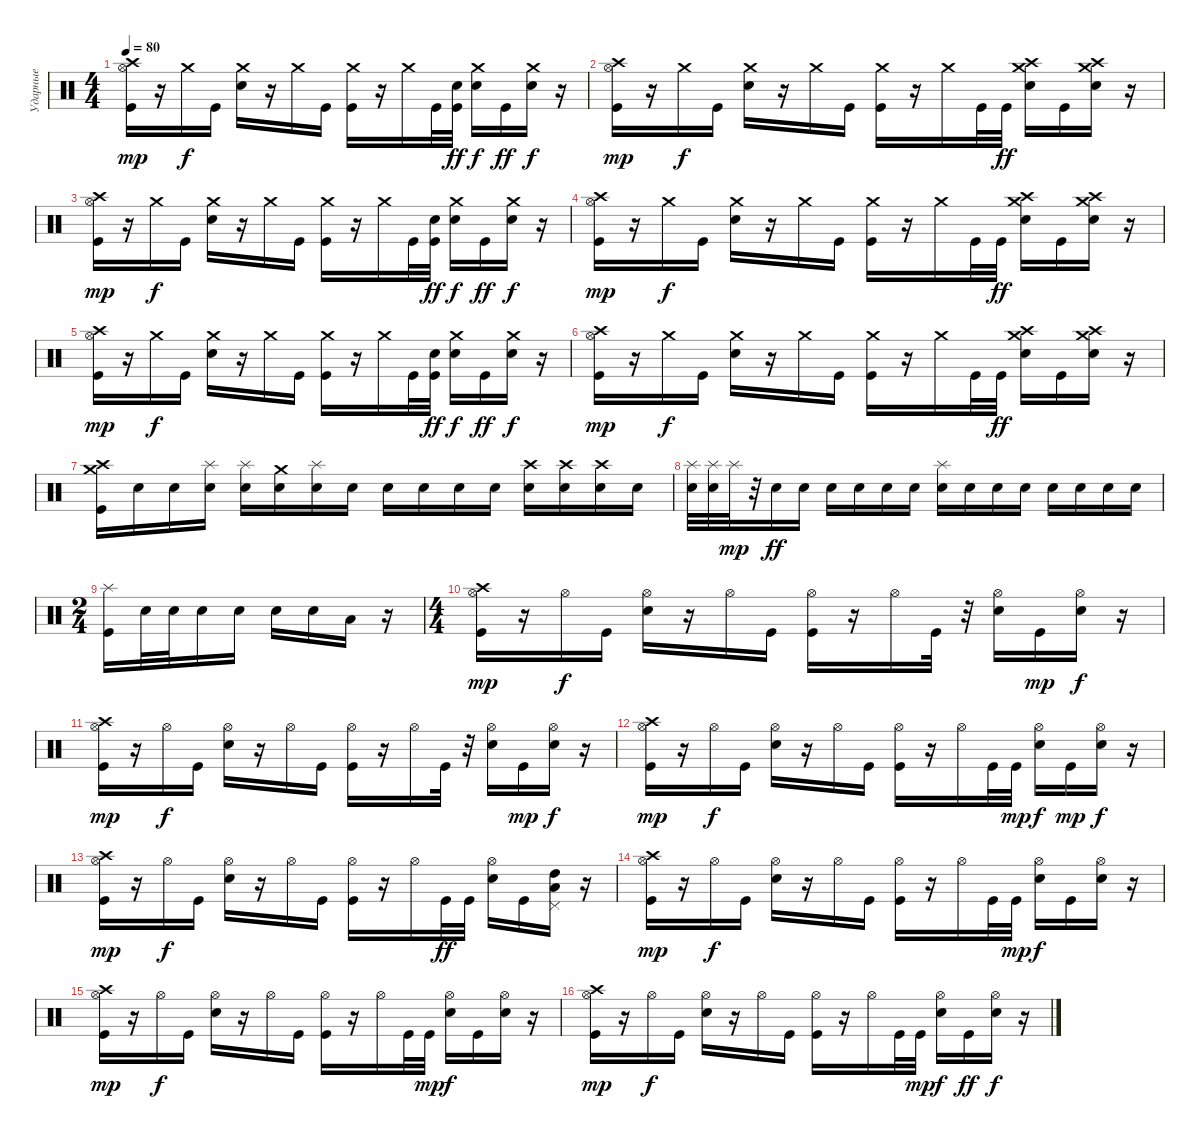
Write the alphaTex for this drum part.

\track ("Ударные" "Ударные") {instrument percussion}
\staff {score}
\articulation defaults
\ts (4 4)
\tempo 80
\clef neutral
\ks c
("Crash high (hit)" "Hi-Hat (open)" "Kick (hit)").16{dy mp} r.16 "Crash medium (hit)".16{dy f} "Kick (hit)".16 ("Crash medium (hit)" "Electric Snare (hit)").16 r.16 "Crash medium (hit)".16 "Kick (hit)".16 ("Crash medium (hit)" "Kick (hit)").16 r.16 "Crash medium (hit)".16 "Kick (hit)".32 ("Snare (hit)" "Kick (hit)").32{dy ff} ("Crash medium (hit)" "Electric Snare (hit)").16{dy f} "Kick (hit)".16{dy ff} ("Crash medium (hit)" "Electric Snare (hit)").16{dy f} r.16 |
("Crash high (hit)" "Hi-Hat (open)" "Kick (hit)").16{dy mp} r.16 "Crash medium (hit)".16{dy f} "Kick (hit)".16 ("Crash medium (hit)" "Electric Snare (hit)").16 r.16 "Crash medium (hit)".16 "Kick (hit)".16 ("Crash medium (hit)" "Kick (hit)").16 r.16 "Crash medium (hit)".16 "Kick (hit)".32 "Kick (hit)".32{dy ff} ("Crash high (hit)" "Crash medium (hit)" "Electric Snare (hit)").16 "Kick (hit)".16 ("Crash medium (hit)" "Crash high (hit)" "Electric Snare (hit)").16 r.16 |
("Crash high (hit)" "Hi-Hat (open)" "Kick (hit)").16{dy mp} r.16 "Crash medium (hit)".16{dy f} "Kick (hit)".16 ("Crash medium (hit)" "Electric Snare (hit)").16 r.16 "Crash medium (hit)".16 "Kick (hit)".16 ("Crash medium (hit)" "Kick (hit)").16 r.16 "Crash medium (hit)".16 "Kick (hit)".32 ("Snare (hit)" "Kick (hit)").32{dy ff} ("Crash medium (hit)" "Electric Snare (hit)").16{dy f} "Kick (hit)".16{dy ff} ("Crash medium (hit)" "Electric Snare (hit)").16{dy f} r.16 |
("Crash high (hit)" "Hi-Hat (open)" "Kick (hit)").16{dy mp} r.16 "Crash medium (hit)".16{dy f} "Kick (hit)".16 ("Crash medium (hit)" "Electric Snare (hit)").16 r.16 "Crash medium (hit)".16 "Kick (hit)".16 ("Crash medium (hit)" "Kick (hit)").16 r.16 "Crash medium (hit)".16 "Kick (hit)".32 "Kick (hit)".32{dy ff} ("Crash high (hit)" "Crash medium (hit)" "Electric Snare (hit)").16 "Kick (hit)".16 ("Crash medium (hit)" "Crash high (hit)" "Electric Snare (hit)").16 r.16 |
("Crash high (hit)" "Hi-Hat (open)" "Kick (hit)").16{dy mp} r.16 "Crash medium (hit)".16{dy f} "Kick (hit)".16 ("Crash medium (hit)" "Electric Snare (hit)").16 r.16 "Crash medium (hit)".16 "Kick (hit)".16 ("Crash medium (hit)" "Kick (hit)").16 r.16 "Crash medium (hit)".16 "Kick (hit)".32 ("Snare (hit)" "Kick (hit)").32{dy ff} ("Crash medium (hit)" "Electric Snare (hit)").16{dy f} "Kick (hit)".16{dy ff} ("Crash medium (hit)" "Electric Snare (hit)").16{dy f} r.16 |
("Crash high (hit)" "Hi-Hat (open)" "Kick (hit)").16{dy mp} r.16 "Crash medium (hit)".16{dy f} "Kick (hit)".16 ("Crash medium (hit)" "Electric Snare (hit)").16 r.16 "Crash medium (hit)".16 "Kick (hit)".16 ("Crash medium (hit)" "Kick (hit)").16 r.16 "Crash medium (hit)".16 "Kick (hit)".32 "Kick (hit)".32{dy ff} ("Crash high (hit)" "Crash medium (hit)" "Electric Snare (hit)").16 "Kick (hit)".16 ("Crash medium (hit)" "Crash high (hit)" "Electric Snare (hit)").16 r.16 |
("Crash medium (hit)" "Crash high (hit)" "Kick (hit)").16 "Snare (hit)".16 "Snare (hit)".16 ("Splash (hit)" "Snare (hit)").16 ("Splash (hit)" "Snare (hit)").16 ("Crash medium (hit)" "Snare (hit)").16 ("Splash (hit)" "Snare (hit)").16 "Snare (hit)".16 "Snare (hit)".16 "Snare (hit)".16 "Snare (hit)".16 "Snare (hit)".16 ("Crash high (hit)" "Snare (hit)").16 ("Crash high (hit)" "Snare (hit)").16 ("Crash high (hit)" "Snare (hit)").16 "Snare (hit)".16 |
("Splash (hit)" "Snare (hit)").32 ("Splash (hit)" "Snare (hit)").32 "Splash (hit)".32{dy mp} r.32 "Snare (hit)".16{dy ff} "Snare (hit)".16 "Snare (hit)".16 "Snare (hit)".16 "Snare (hit)".16 "Snare (hit)".16 ("Splash (hit)" "Snare (hit)").16 "Snare (hit)".16 "Snare (hit)".16 "Snare (hit)".16 "Snare (hit)".16 "Snare (hit)".16 "Snare (hit)".16 "Snare (hit)".16 |
\ts (2 4)
("Splash (hit)" "Kick (hit)").16 "Electric Snare (hit)".32 "Electric Snare (hit)".32 "Electric Snare (hit)".16 "Electric Snare (hit)".16 "Electric Snare (hit)".16 "Electric Snare (hit)".16 "Low Floor Tom (hit)".16 r.16 |
\ts (4 4)
("Crash high (hit)" "Hi-Hat (open)" "Kick (hit)").16{dy mp} r.16 "Hi-Hat (open)".16{dy f} "Kick (hit)".16 ("Hi-Hat (open)" "Electric Snare (hit)").16 r.16 "Hi-Hat (open)".16 "Kick (hit)".16 ("Hi-Hat (open)" "Kick (hit)").16 r.16 "Hi-Hat (open)".16 "Kick (hit)".32 r.32 ("Hi-Hat (open)" "Electric Snare (hit)").16 "Kick (hit)".16{dy mp} ("Hi-Hat (open)" "Electric Snare (hit)").16{dy f} r.16 |
("Crash high (hit)" "Hi-Hat (open)" "Kick (hit)").16{dy mp} r.16 "Hi-Hat (open)".16{dy f} "Kick (hit)".16 ("Hi-Hat (open)" "Electric Snare (hit)").16 r.16 "Hi-Hat (open)".16 "Kick (hit)".16 ("Hi-Hat (open)" "Kick (hit)").16 r.16 "Hi-Hat (open)".16 "Kick (hit)".32 r.32 ("Hi-Hat (open)" "Electric Snare (hit)").16 "Kick (hit)".16{dy mp} ("Hi-Hat (open)" "Electric Snare (hit)").16{dy f} r.16 |
("Crash high (hit)" "Hi-Hat (open)" "Kick (hit)").16{dy mp} r.16 "Hi-Hat (open)".16{dy f} "Kick (hit)".16 ("Hi-Hat (open)" "Electric Snare (hit)").16 r.16 "Hi-Hat (open)".16 "Kick (hit)".16 ("Hi-Hat (open)" "Kick (hit)").16 r.16 "Hi-Hat (open)".16 "Kick (hit)".32 "Kick (hit)".32{dy mp} ("Hi-Hat (open)" "Electric Snare (hit)").16{dy f} "Kick (hit)".16{dy mp} ("Hi-Hat (open)" "Electric Snare (hit)").16{dy f} r.16 |
("Crash high (hit)" "Hi-Hat (open)" "Kick (hit)").16{dy mp} r.16 "Hi-Hat (open)".16{dy f} "Kick (hit)".16 ("Hi-Hat (open)" "Electric Snare (hit)").16 r.16 "Hi-Hat (open)".16 "Kick (hit)".16 ("Hi-Hat (open)" "Kick (hit)").16 r.16 "Hi-Hat (open)".16 "Kick (hit)".32{dy ff} "Kick (hit)".32 ("Hi-Hat (open)" "Electric Snare (hit)").16 "Kick (hit)".16 ("Pedal Hi-Hat (hit)" "High Tom (hit)" "Low Floor Tom (hit)").16 r.16 |
("Crash high (hit)" "Hi-Hat (open)" "Kick (hit)").16{dy mp} r.16 "Hi-Hat (open)".16{dy f} "Kick (hit)".16 ("Hi-Hat (open)" "Electric Snare (hit)").16 r.16 "Hi-Hat (open)".16 "Kick (hit)".16 ("Hi-Hat (open)" "Kick (hit)").16 r.16 "Hi-Hat (open)".16 "Kick (hit)".32 "Kick (hit)".32{dy mp} ("Hi-Hat (open)" "Electric Snare (hit)").16{dy f} "Kick (hit)".16 ("Hi-Hat (open)" "Electric Snare (hit)").16 r.16 |
("Crash high (hit)" "Hi-Hat (open)" "Kick (hit)").16{dy mp} r.16 "Hi-Hat (open)".16{dy f} "Kick (hit)".16 ("Hi-Hat (open)" "Electric Snare (hit)").16 r.16 "Hi-Hat (open)".16 "Kick (hit)".16 ("Hi-Hat (open)" "Kick (hit)").16 r.16 "Hi-Hat (open)".16 "Kick (hit)".32 "Kick (hit)".32{dy mp} ("Hi-Hat (open)" "Electric Snare (hit)").16{dy f} "Kick (hit)".16 ("Hi-Hat (open)" "Electric Snare (hit)").16 r.16 |
("Crash high (hit)" "Hi-Hat (open)" "Kick (hit)").16{dy mp} r.16 "Hi-Hat (open)".16{dy f} "Kick (hit)".16 ("Hi-Hat (open)" "Electric Snare (hit)").16 r.16 "Hi-Hat (open)".16 "Kick (hit)".16 ("Hi-Hat (open)" "Kick (hit)").16 r.16 "Hi-Hat (open)".16 "Kick (hit)".32 "Kick (hit)".32{dy mp} ("Hi-Hat (open)" "Electric Snare (hit)").16{dy f} "Kick (hit)".16{dy ff} ("Hi-Hat (open)" "Electric Snare (hit)").16{dy f} r.16
